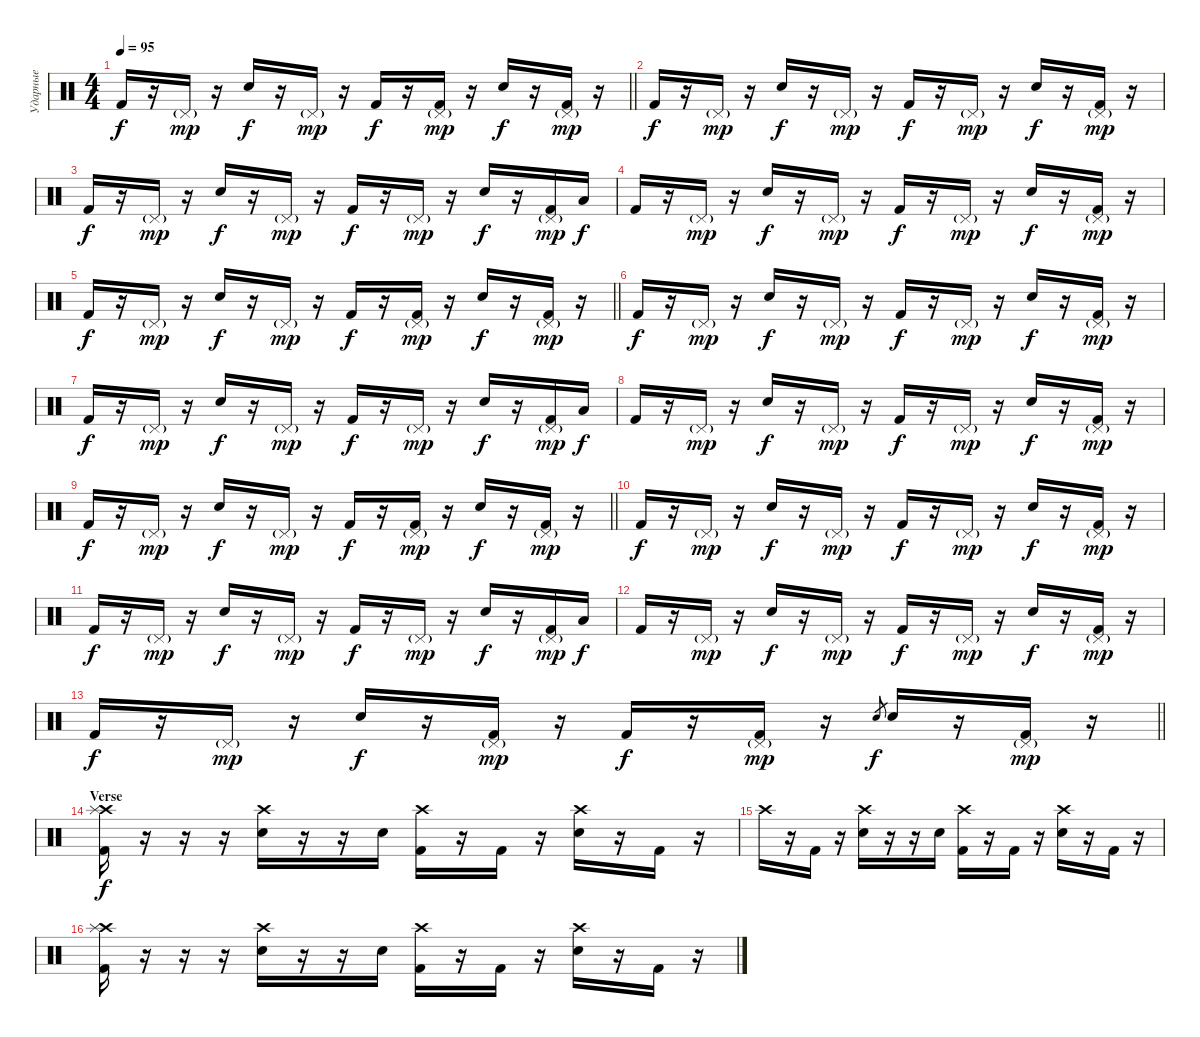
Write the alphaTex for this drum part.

\track ("Ударные" "Ударные") {instrument percussion}
\staff {score}
\articulation defaults
\ts (4 4)
\tempo 95
\clef neutral
\barLineRight lightlight
\ks c "Kick (hit) 2".16{dy f}
r.16 "Pedal Hi-Hat (hit)"{g}.16{dy mp} r.16 "Snare (hit) 2".16{dy f} r.16 "Pedal Hi-Hat (hit)"{g}.16{dy mp} r.16 "Kick (hit) 2".16{dy f} r.16 ("Pedal Hi-Hat (hit)"{g} "Kick (hit) 2").16{dy mp} r.16 "Snare (hit) 2".16{dy f} r.16 ("Pedal Hi-Hat (hit)"{g} "Kick (hit) 2").16{dy mp} r.16 |
"Kick (hit) 2".16{dy f} r.16 "Pedal Hi-Hat (hit)"{g}.16{dy mp} r.16 "Snare (hit) 2".16{dy f} r.16 "Pedal Hi-Hat (hit)"{g}.16{dy mp} r.16 "Kick (hit) 2".16{dy f} r.16 "Pedal Hi-Hat (hit)"{g}.16{dy mp} r.16 "Snare (hit) 2".16{dy f} r.16 ("Pedal Hi-Hat (hit)"{g} "Kick (hit) 2").16{dy mp} r.16 |
"Kick (hit) 2".16{dy f} r.16 "Pedal Hi-Hat (hit)"{g}.16{dy mp} r.16 "Snare (hit) 2".16{dy f} r.16 "Pedal Hi-Hat (hit)"{g}.16{dy mp} r.16 "Kick (hit) 2".16{dy f} r.16 "Pedal Hi-Hat (hit)"{g}.16{dy mp} r.16 "Snare (hit) 2".16{dy f} r.16 ("Pedal Hi-Hat (hit)"{g} "Kick (hit) 2").16{dy mp} "Low Tom (hit)".16{dy f} |
"Kick (hit) 2".16 r.16 "Pedal Hi-Hat (hit)"{g}.16{dy mp} r.16 "Snare (hit) 2".16{dy f} r.16 "Pedal Hi-Hat (hit)"{g}.16{dy mp} r.16 "Kick (hit) 2".16{dy f} r.16 "Pedal Hi-Hat (hit)"{g}.16{dy mp} r.16 "Snare (hit) 2".16{dy f} r.16 ("Pedal Hi-Hat (hit)"{g} "Kick (hit) 2").16{dy mp} r.16 |
\barLineRight lightlight "Kick (hit) 2".16{dy f}
r.16 "Pedal Hi-Hat (hit)"{g}.16{dy mp} r.16 "Snare (hit) 2".16{dy f} r.16 "Pedal Hi-Hat (hit)"{g}.16{dy mp} r.16 "Kick (hit) 2".16{dy f} r.16 ("Pedal Hi-Hat (hit)"{g} "Kick (hit) 2").16{dy mp} r.16 "Snare (hit) 2".16{dy f} r.16 ("Pedal Hi-Hat (hit)"{g} "Kick (hit) 2").16{dy mp} r.16 |
"Kick (hit) 2".16{dy f} r.16 "Pedal Hi-Hat (hit)"{g}.16{dy mp} r.16 "Snare (hit) 2".16{dy f} r.16 "Pedal Hi-Hat (hit)"{g}.16{dy mp} r.16 "Kick (hit) 2".16{dy f} r.16 "Pedal Hi-Hat (hit)"{g}.16{dy mp} r.16 "Snare (hit) 2".16{dy f} r.16 ("Pedal Hi-Hat (hit)"{g} "Kick (hit) 2").16{dy mp} r.16 |
"Kick (hit) 2".16{dy f} r.16 "Pedal Hi-Hat (hit)"{g}.16{dy mp} r.16 "Snare (hit) 2".16{dy f} r.16 "Pedal Hi-Hat (hit)"{g}.16{dy mp} r.16 "Kick (hit) 2".16{dy f} r.16 "Pedal Hi-Hat (hit)"{g}.16{dy mp} r.16 "Snare (hit) 2".16{dy f} r.16 ("Pedal Hi-Hat (hit)"{g} "Kick (hit) 2").16{dy mp} "Low Tom (hit)".16{dy f} |
"Kick (hit) 2".16 r.16 "Pedal Hi-Hat (hit)"{g}.16{dy mp} r.16 "Snare (hit) 2".16{dy f} r.16 "Pedal Hi-Hat (hit)"{g}.16{dy mp} r.16 "Kick (hit) 2".16{dy f} r.16 "Pedal Hi-Hat (hit)"{g}.16{dy mp} r.16 "Snare (hit) 2".16{dy f} r.16 ("Pedal Hi-Hat (hit)"{g} "Kick (hit) 2").16{dy mp} r.16 |
\barLineRight lightlight "Kick (hit) 2".16{dy f}
r.16 "Pedal Hi-Hat (hit)"{g}.16{dy mp} r.16 "Snare (hit) 2".16{dy f} r.16 "Pedal Hi-Hat (hit)"{g}.16{dy mp} r.16 "Kick (hit) 2".16{dy f} r.16 ("Pedal Hi-Hat (hit)"{g} "Kick (hit) 2").16{dy mp} r.16 "Snare (hit) 2".16{dy f} r.16 ("Pedal Hi-Hat (hit)"{g} "Kick (hit) 2").16{dy mp} r.16 |
"Kick (hit) 2".16{dy f} r.16 "Pedal Hi-Hat (hit)"{g}.16{dy mp} r.16 "Snare (hit) 2".16{dy f} r.16 "Pedal Hi-Hat (hit)"{g}.16{dy mp} r.16 "Kick (hit) 2".16{dy f} r.16 "Pedal Hi-Hat (hit)"{g}.16{dy mp} r.16 "Snare (hit) 2".16{dy f} r.16 ("Pedal Hi-Hat (hit)"{g} "Kick (hit) 2").16{dy mp} r.16 |
"Kick (hit) 2".16{dy f} r.16 "Pedal Hi-Hat (hit)"{g}.16{dy mp} r.16 "Snare (hit) 2".16{dy f} r.16 "Pedal Hi-Hat (hit)"{g}.16{dy mp} r.16 "Kick (hit) 2".16{dy f} r.16 "Pedal Hi-Hat (hit)"{g}.16{dy mp} r.16 "Snare (hit) 2".16{dy f} r.16 ("Pedal Hi-Hat (hit)"{g} "Kick (hit) 2").16{dy mp} "Low Tom (hit)".16{dy f} |
"Kick (hit) 2".16 r.16 "Pedal Hi-Hat (hit)"{g}.16{dy mp} r.16 "Snare (hit) 2".16{dy f} r.16 "Pedal Hi-Hat (hit)"{g}.16{dy mp} r.16 "Kick (hit) 2".16{dy f} r.16 "Pedal Hi-Hat (hit)"{g}.16{dy mp} r.16 "Snare (hit) 2".16{dy f} r.16 ("Pedal Hi-Hat (hit)"{g} "Kick (hit) 2").16{dy mp} r.16 |
\barLineRight lightlight "Kick (hit) 2".16{dy f}
r.16 "Pedal Hi-Hat (hit)"{g}.16{dy mp} r.16 "Snare (hit) 2".16{dy f} r.16 ("Pedal Hi-Hat (hit)"{g} "Kick (hit) 2").16{dy mp} r.16 "Kick (hit) 2".16{dy f} r.16 ("Pedal Hi-Hat (hit)"{g} "Kick (hit) 2").16{dy mp} r.16 "Snare (hit) 2".8{gr dy f} "Snare (hit) 2".16 r.16 ("Pedal Hi-Hat (hit)"{g} "Kick (hit) 2").16{dy mp} r.16 |
\section ("" "Verse")
("Crash high (hit)" "Splash (hit)" "Kick (hit) 2").16{dy f} r.16 r.16 r.16 ("Crash high (hit)" "Snare (hit) 2").16 r.16 r.16 "Snare (hit) 2".16 ("Crash high (hit)" "Kick (hit) 2").16 r.16 "Kick (hit) 2".16 r.16 ("Crash high (hit)" "Snare (hit) 2").16 r.16 "Kick (hit) 2".16 r.16 |
"Crash high (hit)".16 r.16 "Kick (hit) 2".16 r.16 ("Crash high (hit)" "Snare (hit) 2").16 r.16 r.16 "Snare (hit) 2".16 ("Crash high (hit)" "Kick (hit) 2").16 r.16 "Kick (hit) 2".16 r.16 ("Crash high (hit)" "Snare (hit) 2").16 r.16 "Kick (hit) 2".16 r.16 |
("Crash high (hit)" "Splash (hit)" "Kick (hit) 2").16 r.16 r.16 r.16 ("Crash high (hit)" "Snare (hit) 2").16 r.16 r.16 "Snare (hit) 2".16 ("Crash high (hit)" "Kick (hit) 2").16 r.16 "Kick (hit) 2".16 r.16 ("Crash high (hit)" "Snare (hit) 2").16 r.16 "Kick (hit) 2".16 r.16
